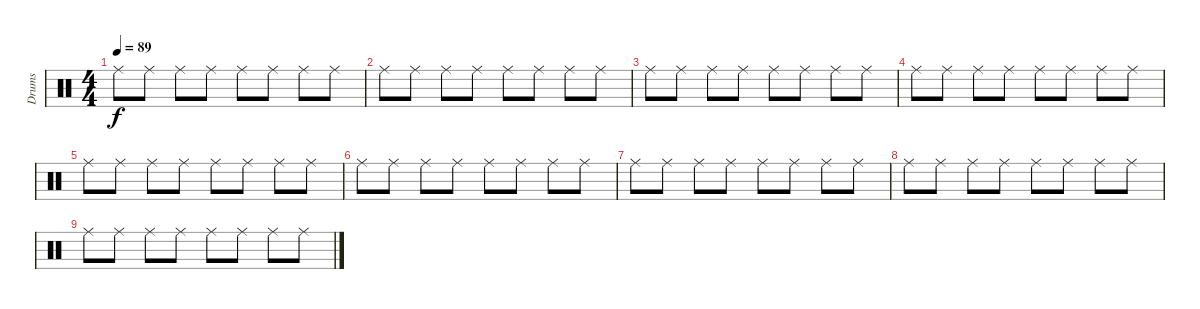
\track ("Drums" "Drums") {instrument percussion}
\staff {score}
\articulation defaults
\ts (4 4)
\tempo 89
\clef neutral
\ks c "Ride (middle)".8{dy f} "Ride (middle)".8 "Ride (middle)".8 "Ride (middle)".8 "Ride (middle)".8 "Ride (middle)".8 "Ride (middle)".8 "Ride (middle)".8
|
"Ride (middle)".8 "Ride (middle)".8 "Ride (middle)".8 "Ride (middle)".8 "Ride (middle)".8 "Ride (middle)".8 "Ride (middle)".8 "Ride (middle)".8 |
"Ride (middle)".8 "Ride (middle)".8 "Ride (middle)".8 "Ride (middle)".8 "Ride (middle)".8 "Ride (middle)".8 "Ride (middle)".8 "Ride (middle)".8 |
"Ride (middle)".8 "Ride (middle)".8 "Ride (middle)".8 "Ride (middle)".8 "Ride (middle)".8 "Ride (middle)".8 "Ride (middle)".8 "Ride (middle)".8 |
"Ride (middle)".8 "Ride (middle)".8 "Ride (middle)".8 "Ride (middle)".8 "Ride (middle)".8 "Ride (middle)".8 "Ride (middle)".8 "Ride (middle)".8 |
"Ride (middle)".8 "Ride (middle)".8 "Ride (middle)".8 "Ride (middle)".8 "Ride (middle)".8 "Ride (middle)".8 "Ride (middle)".8 "Ride (middle)".8 |
"Ride (middle)".8 "Ride (middle)".8 "Ride (middle)".8 "Ride (middle)".8 "Ride (middle)".8 "Ride (middle)".8 "Ride (middle)".8 "Ride (middle)".8 |
"Ride (middle)".8 "Ride (middle)".8 "Ride (middle)".8 "Ride (middle)".8 "Ride (middle)".8 "Ride (middle)".8 "Ride (middle)".8 "Ride (middle)".8 |
"Ride (middle)".8 "Ride (middle)".8 "Ride (middle)".8 "Ride (middle)".8 "Ride (middle)".8 "Ride (middle)".8 "Ride (middle)".8 "Ride (middle)".8
